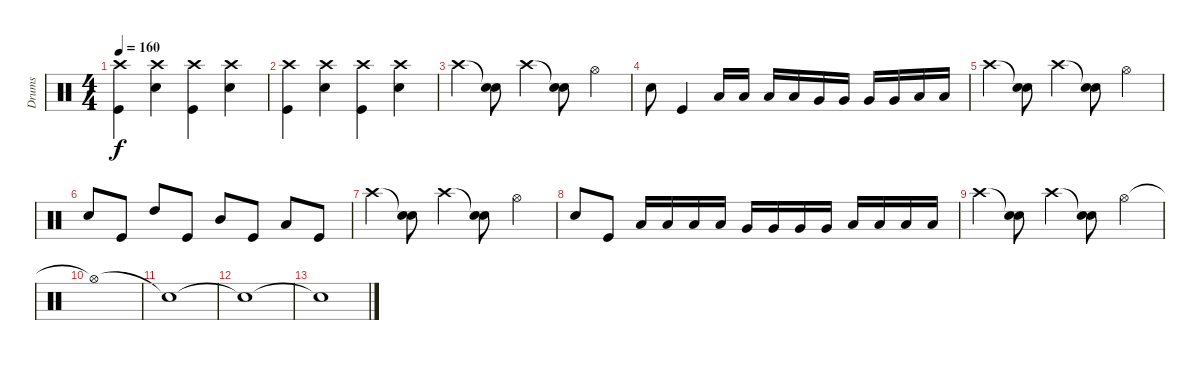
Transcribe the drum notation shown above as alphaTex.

\track ("Drums" "Drums") {instrument percussion}
\staff {score}
\articulation defaults
\ts (4 4)
\tempo 160
\clef neutral
\ks c
("Crash high (hit)" "Kick (hit)").4{dy f} ("Crash high (hit)" "Snare (hit) 2").4 ("Crash high (hit)" "Kick (hit)").4 ("Crash high (hit)" "Snare (hit) 2").4 |
("Crash high (hit)" "Kick (hit)").4 ("Crash high (hit)" "Snare (hit) 2").4 ("Crash high (hit)" "Kick (hit)").4 ("Crash high (hit)" "Snare (hit) 2").4 |
"Crash high (hit)".4 ("Snare (hit)"{t} "Electric Snare (hit)").8 "Crash high (hit)".4 ("Snare (hit)"{t} "Electric Snare (hit)").8 "Hi-Hat (open)".4 |
"Snare (hit) 2".8 "Kick (hit)".4 "Low Tom (hit)".16 "Low Tom (hit)".16 "Low Tom (hit)".16 "Low Tom (hit)".16 "Very Low Tom (hit)".16 "Very Low Tom (hit)".16 "Very Low Tom (hit)".16 "Very Low Tom (hit)".16 "Low Floor Tom (hit)".16 "Low Floor Tom (hit)".16 |
"Crash high (hit)".4 ("Snare (hit)"{t} "Electric Snare (hit)").8 "Crash high (hit)".4 ("Snare (hit)"{t} "Electric Snare (hit)").8 "Hi-Hat (open)".4 |
"Snare (hit) 2".8 "Kick (hit)".8 "High Tom (hit)".8 "Kick (hit)".8 "Mid Tom (hit)".8 "Kick (hit)".8 "Low Tom (hit)".8 "Kick (hit)".8 |
"Crash high (hit)".4 ("Snare (hit)"{t} "Electric Snare (hit)").8 "Crash high (hit)".4 ("Snare (hit)"{t} "Electric Snare (hit)").8 "Hi-Hat (open)".4 |
"Snare (hit) 2".8 "Kick (hit)".8 "Low Tom (hit)".16 "Low Tom (hit)".16 "Low Tom (hit)".16 "Low Tom (hit)".16 "Very Low Tom (hit)".16 "Very Low Tom (hit)".16 "Very Low Tom (hit)".16 "Very Low Tom (hit)".16 "Low Floor Tom (hit)".16 "Low Floor Tom (hit)".16 "Low Floor Tom (hit)".16 "Low Floor Tom (hit)".16 |
"Crash high (hit)".4 ("Snare (hit)"{t} "Electric Snare (hit)").8 "Crash high (hit)".4 ("Snare (hit)"{t} "Electric Snare (hit)").8 "Hi-Hat (open)".4 |
"Hi-Hat (open)"{t}.1 |
"Snare (hit)"{t}.1 |
"Snare (hit)"{t}.1 |
"Snare (hit)"{t}.1
